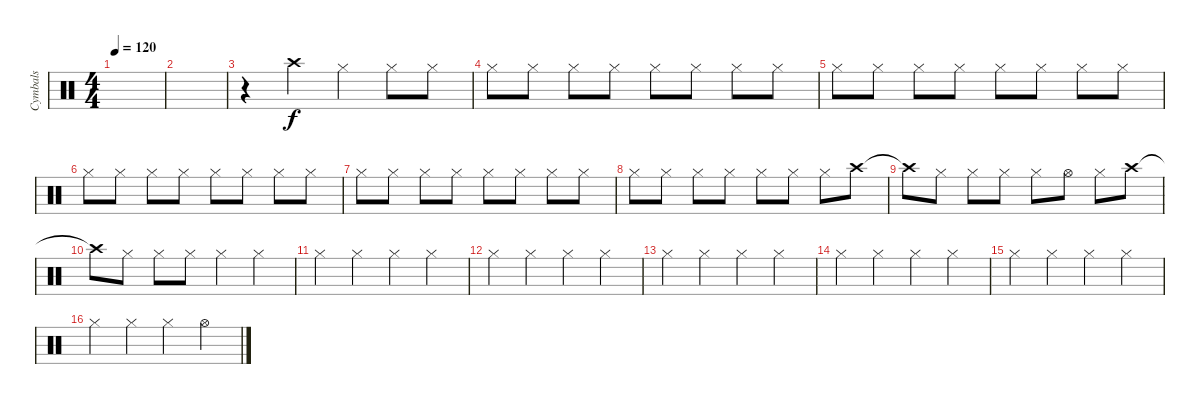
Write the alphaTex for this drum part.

\track ("Cymbals" "Cymbals") {instrument percussion}
\staff {score}
\articulation defaults
\ts (4 4)
\tempo 120
\clef neutral
\ks c
|
|
r.4 "Crash high (hit)".4 "Hi-Hat (closed)".4 "Hi-Hat (closed)".8 "Hi-Hat (closed)".8 |
"Hi-Hat (closed)".8 "Hi-Hat (closed)".8 "Hi-Hat (closed)".8 "Hi-Hat (closed)".8 "Hi-Hat (closed)".8 "Hi-Hat (closed)".8 "Hi-Hat (closed)".8 "Hi-Hat (closed)".8 |
"Hi-Hat (closed)".8 "Hi-Hat (closed)".8 "Hi-Hat (closed)".8 "Hi-Hat (closed)".8 "Hi-Hat (closed)".8 "Hi-Hat (closed)".8 "Hi-Hat (closed)".8 "Hi-Hat (closed)".8 |
"Hi-Hat (closed)".8 "Hi-Hat (closed)".8 "Hi-Hat (closed)".8 "Hi-Hat (closed)".8 "Hi-Hat (closed)".8 "Hi-Hat (closed)".8 "Hi-Hat (closed)".8 "Hi-Hat (closed)".8 |
"Hi-Hat (closed)".8 "Hi-Hat (closed)".8 "Hi-Hat (closed)".8 "Hi-Hat (closed)".8 "Hi-Hat (closed)".8 "Hi-Hat (closed)".8 "Hi-Hat (closed)".8 "Hi-Hat (closed)".8 |
"Hi-Hat (closed)".8 "Hi-Hat (closed)".8 "Hi-Hat (closed)".8 "Hi-Hat (closed)".8 "Hi-Hat (closed)".8 "Hi-Hat (closed)".8 "Hi-Hat (closed)".8 "Crash high (hit)".8 |
"Crash high (hit)"{t}.8 "Hi-Hat (closed)".8 "Hi-Hat (closed)".8 "Hi-Hat (closed)".8 "Hi-Hat (closed)".8 "Hi-Hat (open)".8 "Hi-Hat (closed)".8 "Crash high (hit)".8 |
"Crash high (hit)"{t}.8 "Hi-Hat (closed)".8 "Hi-Hat (closed)".8 "Hi-Hat (closed)".8 "Hi-Hat (closed)".4 "Hi-Hat (closed)".4 |
"Hi-Hat (closed)".4 "Hi-Hat (closed)".4 "Hi-Hat (closed)".4 "Hi-Hat (closed)".4 |
"Hi-Hat (closed)".4 "Hi-Hat (closed)".4 "Hi-Hat (closed)".4 "Hi-Hat (closed)".4 |
"Hi-Hat (closed)".4 "Hi-Hat (closed)".4 "Hi-Hat (closed)".4 "Hi-Hat (closed)".4 |
"Hi-Hat (closed)".4 "Hi-Hat (closed)".4 "Hi-Hat (closed)".4 "Hi-Hat (closed)".4 |
"Hi-Hat (closed)".4 "Hi-Hat (closed)".4 "Hi-Hat (closed)".4 "Hi-Hat (closed)".4 |
"Hi-Hat (closed)".4 "Hi-Hat (closed)".4 "Hi-Hat (closed)".4 "Hi-Hat (open)".4
